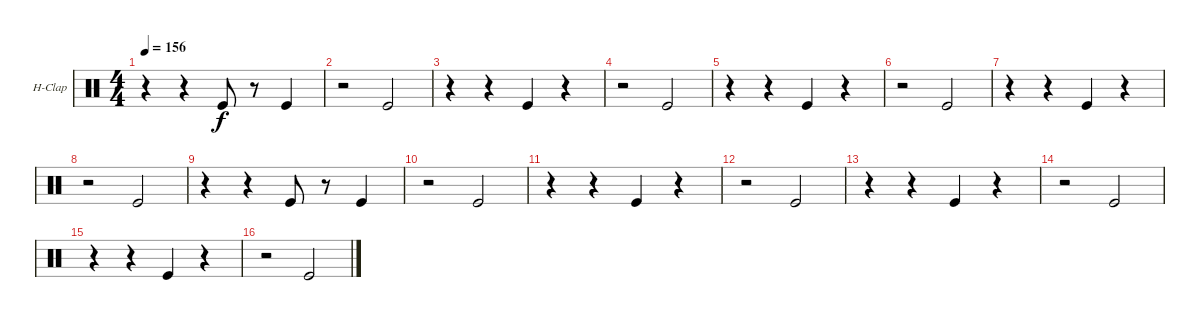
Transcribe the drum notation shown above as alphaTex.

\defaultSystemsLayout 4
\bracketExtendMode groupsimilarinstruments
\firstSystemTrackNameOrientation horizontal
\otherSystemsTrackNameOrientation horizontal
\track ("Hand Clap" "H-Clap") {instrument percussion}
\staff {score}
\articulation defaults
\ts (4 4)
\tempo 156
\clef neutral
\scale
0.333333
\ks c
r.4{dy f} r.4 "Kick (hit)".8 r.8 "Kick (hit)".4 |
\scale
0.333333 r.2 "Kick (hit)".2 |
\scale
0.333333 r.4 r.4 "Kick (hit)".4 r.4 |
\scale
0.333333 r.2 "Kick (hit)".2 |
\scale
0.333333 r.4 r.4 "Kick (hit)".4 r.4 |
\scale
0.333333 r.2 "Kick (hit)".2 |
\scale
0.333333 r.4 r.4 "Kick (hit)".4 r.4 |
\scale
0.333333 r.2 "Kick (hit)".2 |
\scale
0.333333 r.4 r.4 "Kick (hit)".8 r.8 "Kick (hit)".4 |
\scale
0.333333 r.2 "Kick (hit)".2 |
\scale
0.333333 r.4 r.4 "Kick (hit)".4 r.4 |
\scale
0.333333 r.2 "Kick (hit)".2 |
\scale
0.333333 r.4 r.4 "Kick (hit)".4 r.4 |
\scale
0.333333 r.2 "Kick (hit)".2 |
\scale
0.333333 r.4 r.4 "Kick (hit)".4 r.4 |
r.2 "Kick (hit)".2
